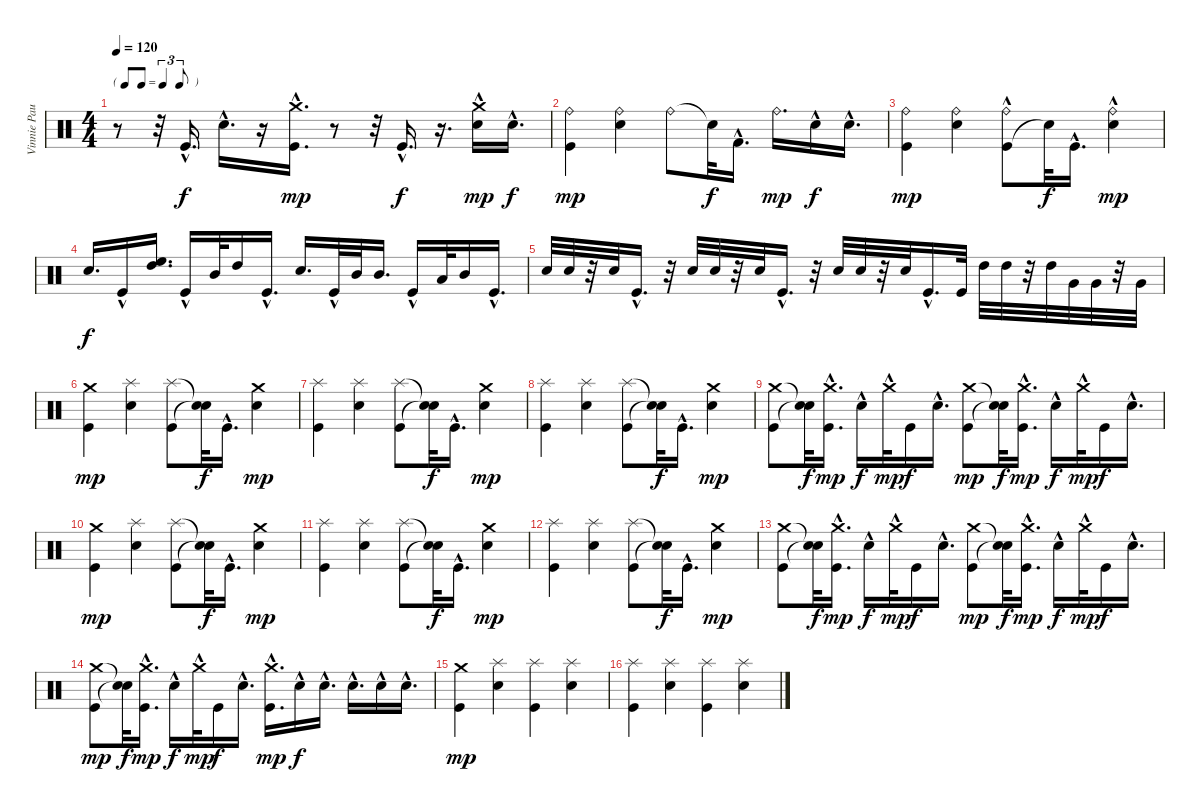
\track ("Vinnie Paul (Drums)" "Vinnie Pau") {instrument percussion}
\staff {score}
\articulation defaults
\ts (4 4)
\tf triplet8th
\tempo 120
\clef neutral
\ks c
r.8{dy mp} r.32 "Kick (hit)"{hac}.16{d dy f} "Electric Snare (hit)"{hac}.16{d} r.16 ("Crash medium (hit)"{hac} "Kick (hit)"{hac}).16{d dy mp} r.8 r.32 "Kick (hit)"{hac}.16{d dy f} r.16{d} ("Electric Snare (hit)"{hac} "Crash medium (hit)"{hac}).16{dy mp} "Electric Snare (hit)"{hac}.16{d dy f} |
("Kick (hit)" "Ride (bell)").4{dy mp} ("Electric Snare (hit)" "Ride (bell)").4 "Ride (bell)".8 "Snare (hit)"{t}.32{dy f} "Kick (hit) 2"{hac}.16{d} "Ride (bell)".16{d dy mp} "Electric Snare (hit)"{hac}.16{dy f} "Electric Snare (hit)"{hac}.16{d} |
("Kick (hit)" "Ride (bell)").4{dy mp} ("Electric Snare (hit)" "Ride (bell)").4 ("Kick (hit)"{hac} "Ride (bell)").8 "Snare (hit)"{t}.32{dy f} "Kick (hit)"{hac}.16{d} ("Electric Snare (hit)"{hac} "Ride (bell)").4{dy mp} |
"Electric Snare (hit)".16{d dy f} "Kick (hit)"{hac}.16 ("High Floor Tom (hit)" "High Tom (hit)").16{d} "Kick (hit)"{hac}.16 "Mid Tom (hit)".32 "High Tom (hit)".16 "Kick (hit)"{hac}.16{d} "Electric Snare (hit)".16{d} "Kick (hit)"{hac}.32 "Mid Tom (hit)".32 "Mid Tom (hit)".16{d} "Kick (hit)"{hac}.16 "Low Tom (hit)".32 "Mid Tom (hit)".16 "Kick (hit)"{hac}.16{d} |
"Electric Snare (hit)".32 "Electric Snare (hit)".32 r.32 "Electric Snare (hit)".32 "Kick (hit)"{hac}.16{d} r.32 "Electric Snare (hit)".32 "Electric Snare (hit)".32 r.32 "Electric Snare (hit)".32 "Kick (hit)"{hac}.16{d} r.32 "Electric Snare (hit)".32 "Electric Snare (hit)".32 r.32 "Electric Snare (hit)".32 "Kick (hit)"{hac}.16{d} "Kick (hit)".32 "High Tom (hit)".32 "High Tom (hit)".32 r.32 "High Tom (hit)".32 "Very Low Tom (hit)".32 "Very Low Tom (hit)".32 r.32 "Very Low Tom (hit)".32 |
("Kick (hit)" "Crash medium (hit)").4{dy mp} ("Electric Snare (hit)" "Splash (hit)").4 ("Kick (hit)" "Splash (hit)").8 ("Snare (hit)"{t} "Snare (hit)"{t}).32{dy f} "Kick (hit)"{hac}.16{d} ("Electric Snare (hit)" "Crash medium (hit)").4{dy mp} |
("Kick (hit)" "Splash (hit)").4 ("Electric Snare (hit)" "Splash (hit)").4 ("Kick (hit)" "Splash (hit)").8 ("Snare (hit)"{t} "Snare (hit)"{t}).32{dy f} "Kick (hit)"{hac}.16{d} ("Electric Snare (hit)" "Crash medium (hit)").4{dy mp} |
("Kick (hit)" "Splash (hit)").4 ("Electric Snare (hit)" "Splash (hit)").4 ("Kick (hit)" "Splash (hit)").8 ("Snare (hit)"{t} "Snare (hit)"{t}).32{dy f} "Kick (hit)"{hac}.16{d} ("Electric Snare (hit)" "Crash medium (hit)").4{dy mp} |
("Crash medium (hit)" "Kick (hit)").8 ("Snare (hit)"{t} "Snare (hit)"{t}).32{dy f} ("Crash medium (hit)"{hac} "Kick (hit)").16{d dy mp} "Electric Snare (hit)"{hac}.16{dy f} "Crash medium (hit)"{hac}.32{dy mp} "Kick (hit)".16{dy f} "Electric Snare (hit)"{hac}.16{d} ("Crash medium (hit)" "Kick (hit)").8{dy mp} ("Snare (hit)"{t} "Snare (hit)"{t}).32{dy f} ("Crash medium (hit)"{hac} "Kick (hit)").16{d dy mp} "Electric Snare (hit)"{hac}.16{dy f} "Crash medium (hit)"{hac}.32{dy mp} "Kick (hit)".16{dy f} "Electric Snare (hit)"{hac}.16{d} |
("Kick (hit)" "Crash medium (hit)").4{dy mp} ("Electric Snare (hit)" "Splash (hit)").4 ("Kick (hit)" "Splash (hit)").8 ("Snare (hit)"{t} "Snare (hit)"{t}).32{dy f} "Kick (hit)"{hac}.16{d} ("Electric Snare (hit)" "Crash medium (hit)").4{dy mp} |
("Kick (hit)" "Splash (hit)").4 ("Electric Snare (hit)" "Splash (hit)").4 ("Kick (hit)" "Splash (hit)").8 ("Snare (hit)"{t} "Snare (hit)"{t}).32{dy f} "Kick (hit)"{hac}.16{d} ("Electric Snare (hit)" "Crash medium (hit)").4{dy mp} |
("Kick (hit)" "Splash (hit)").4 ("Electric Snare (hit)" "Splash (hit)").4 ("Kick (hit)" "Splash (hit)").8 ("Snare (hit)"{t} "Snare (hit)"{t}).32{dy f} "Kick (hit)"{hac}.16{d} ("Electric Snare (hit)" "Crash medium (hit)").4{dy mp} |
("Crash medium (hit)" "Kick (hit)").8 ("Snare (hit)"{t} "Snare (hit)"{t}).32{dy f} ("Crash medium (hit)"{hac} "Kick (hit)").16{d dy mp} "Electric Snare (hit)"{hac}.16{dy f} "Crash medium (hit)"{hac}.32{dy mp} "Kick (hit)".16{dy f} "Electric Snare (hit)"{hac}.16{d} ("Crash medium (hit)" "Kick (hit)").8{dy mp} ("Snare (hit)"{t} "Snare (hit)"{t}).32{dy f} ("Crash medium (hit)"{hac} "Kick (hit)").16{d dy mp} "Electric Snare (hit)"{hac}.16{dy f} "Crash medium (hit)"{hac}.32{dy mp} "Kick (hit)".16{dy f} "Electric Snare (hit)"{hac}.16{d} |
("Crash medium (hit)" "Kick (hit)").8{dy mp} ("Snare (hit)"{t} "Snare (hit)"{t}).32{dy f} ("Crash medium (hit)"{hac} "Kick (hit)").16{d dy mp} "Electric Snare (hit)"{hac}.16{dy f} "Crash medium (hit)"{hac}.32{dy mp} "Kick (hit)".16{dy f} "Electric Snare (hit)"{hac}.16{d} ("Kick (hit)" "Crash medium (hit)"{hac}).16{d dy mp} "Electric Snare (hit)"{hac}.16{dy f} "Electric Snare (hit)"{hac}.16{d} "Electric Snare (hit)"{hac}.16{d} "Electric Snare (hit)"{hac}.16 "Electric Snare (hit)"{hac}.16{d} |
("Kick (hit)" "Crash medium (hit)").4{dy mp} ("Splash (hit)" "Electric Snare (hit)").4 ("Splash (hit)" "Kick (hit)").4 ("Splash (hit)" "Electric Snare (hit)").4 |
("Kick (hit)" "Splash (hit)").4 ("Splash (hit)" "Electric Snare (hit)").4 ("Splash (hit)" "Kick (hit)").4 ("Splash (hit)" "Electric Snare (hit)").4
